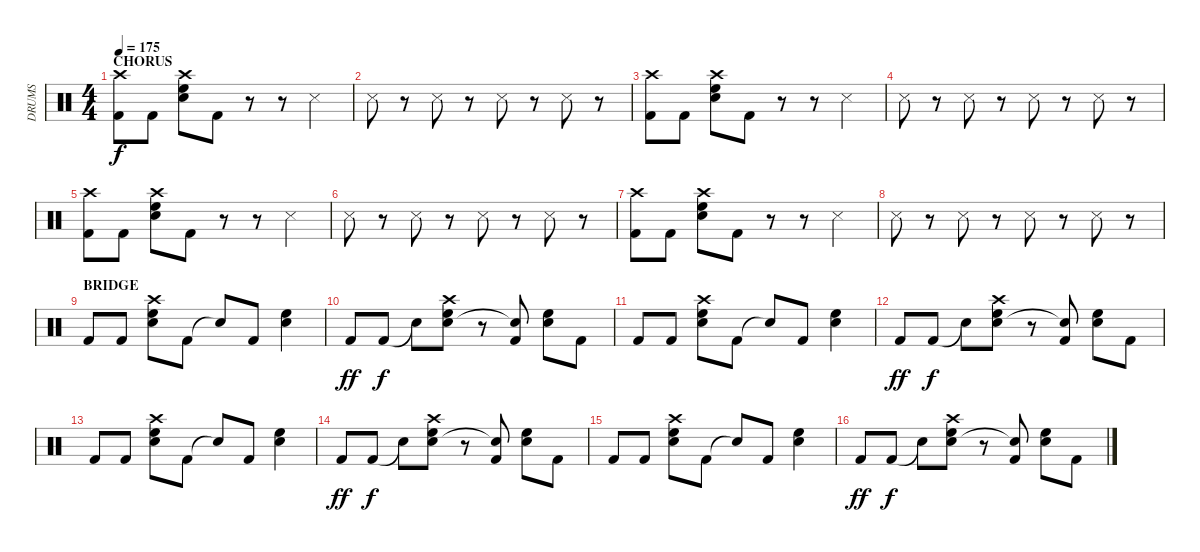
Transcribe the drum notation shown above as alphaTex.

\track ("DRUMS" "DRUMS") {instrument percussion}
\staff {score}
\articulation defaults
\ts (4 4)
\section ("" "CHORUS")
\tempo 175
\clef neutral
\ks c
("Kick (hit) 2" "Crash high (hit)").8{dy f} "Kick (hit) 2".8 ("High Floor Tom (hit)" "Electric Snare (hit)" "Crash high (hit)").8 "Kick (hit) 2".8 r.8 r.8 "Metronome (hit)".4 |
"Metronome (hit)".8 r.8 "Metronome (hit)".8 r.8 "Metronome (hit)".8 r.8 "Metronome (hit)".8 r.8 |
("Kick (hit) 2" "Crash high (hit)").8 "Kick (hit) 2".8 ("High Floor Tom (hit)" "Electric Snare (hit)" "Crash high (hit)").8 "Kick (hit) 2".8 r.8 r.8 "Metronome (hit)".4 |
"Metronome (hit)".8 r.8 "Metronome (hit)".8 r.8 "Metronome (hit)".8 r.8 "Metronome (hit)".8 r.8 |
("Kick (hit) 2" "Crash high (hit)").8 "Kick (hit) 2".8 ("High Floor Tom (hit)" "Electric Snare (hit)" "Crash high (hit)").8 "Kick (hit) 2".8 r.8 r.8 "Metronome (hit)".4 |
"Metronome (hit)".8 r.8 "Metronome (hit)".8 r.8 "Metronome (hit)".8 r.8 "Metronome (hit)".8 r.8 |
("Kick (hit) 2" "Crash high (hit)").8 "Kick (hit) 2".8 ("High Floor Tom (hit)" "Electric Snare (hit)" "Crash high (hit)").8 "Kick (hit) 2".8 r.8 r.8 "Metronome (hit)".4 |
"Metronome (hit)".8 r.8 "Metronome (hit)".8 r.8 "Metronome (hit)".8 r.8 "Metronome (hit)".8 r.8 |
\section ("" "BRIDGE")
"Kick (hit) 2".8 "Kick (hit) 2".8 ("High Floor Tom (hit)" "Electric Snare (hit)" "Crash high (hit)").8 "Kick (hit) 2".8 "Snare (hit)"{t}.8 "Kick (hit) 2".8 ("High Floor Tom (hit)" "Electric Snare (hit)").4 |
"Kick (hit) 2".8{dy ff} "Kick (hit) 2".8{dy f} "Snare (hit)"{t}.8 ("High Floor Tom (hit)" "Electric Snare (hit)" "Crash high (hit)").8 r.8 ("Kick (hit) 2" "Snare (hit)"{t}).8 ("High Floor Tom (hit)" "Electric Snare (hit)").8 "Kick (hit) 2".8 |
"Kick (hit) 2".8 "Kick (hit) 2".8 ("High Floor Tom (hit)" "Electric Snare (hit)" "Crash high (hit)").8 "Kick (hit) 2".8 "Snare (hit)"{t}.8 "Kick (hit) 2".8 ("High Floor Tom (hit)" "Electric Snare (hit)").4 |
"Kick (hit) 2".8{dy ff} "Kick (hit) 2".8{dy f} "Snare (hit)"{t}.8 ("High Floor Tom (hit)" "Electric Snare (hit)" "Crash high (hit)").8 r.8 ("Kick (hit) 2" "Snare (hit)"{t}).8 ("High Floor Tom (hit)" "Electric Snare (hit)").8 "Kick (hit) 2".8 |
"Kick (hit) 2".8 "Kick (hit) 2".8 ("High Floor Tom (hit)" "Electric Snare (hit)" "Crash high (hit)").8 "Kick (hit) 2".8 "Snare (hit)"{t}.8 "Kick (hit) 2".8 ("High Floor Tom (hit)" "Electric Snare (hit)").4 |
"Kick (hit) 2".8{dy ff} "Kick (hit) 2".8{dy f} "Snare (hit)"{t}.8 ("High Floor Tom (hit)" "Electric Snare (hit)" "Crash high (hit)").8 r.8 ("Kick (hit) 2" "Snare (hit)"{t}).8 ("High Floor Tom (hit)" "Electric Snare (hit)").8 "Kick (hit) 2".8 |
"Kick (hit) 2".8 "Kick (hit) 2".8 ("High Floor Tom (hit)" "Electric Snare (hit)" "Crash high (hit)").8 "Kick (hit) 2".8 "Snare (hit)"{t}.8 "Kick (hit) 2".8 ("High Floor Tom (hit)" "Electric Snare (hit)").4 |
"Kick (hit) 2".8{dy ff} "Kick (hit) 2".8{dy f} "Snare (hit)"{t}.8 ("High Floor Tom (hit)" "Electric Snare (hit)" "Crash high (hit)").8 r.8 ("Kick (hit) 2" "Snare (hit)"{t}).8 ("High Floor Tom (hit)" "Electric Snare (hit)").8 "Kick (hit) 2".8
